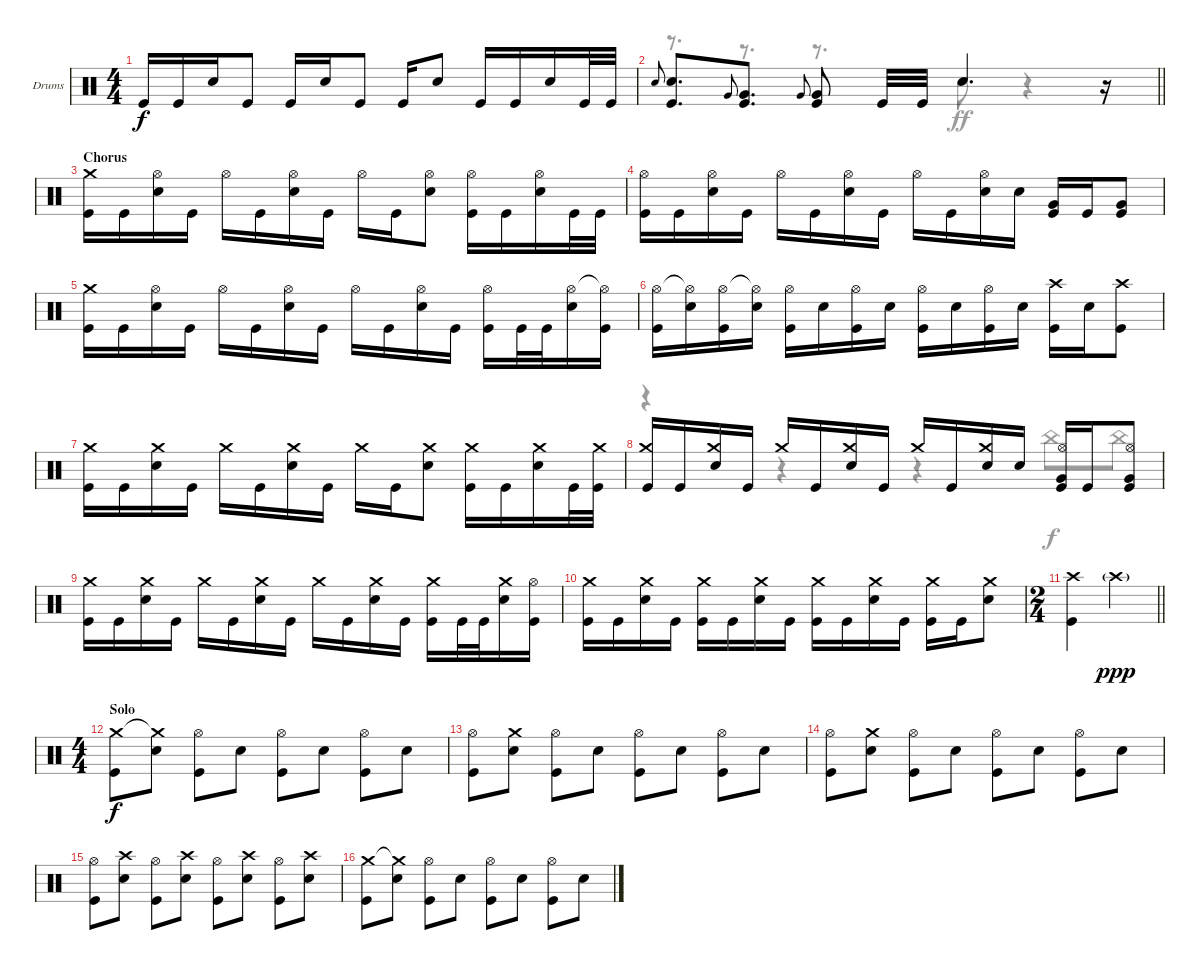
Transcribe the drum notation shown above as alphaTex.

\bracketExtendMode groupsimilarinstruments
\firstSystemTrackNameOrientation horizontal
\otherSystemsTrackNameOrientation horizontal
\track ("Drumkit" "Drums") {instrument percussion}
\staff {score}
\articulation defaults
\voice
\ts (4 4)
\tempo (94 hide)
\clef neutral
\ks c "Kick (hit)".16{dy f} "Kick (hit)".16 "Snare (hit) 2".16 "Kick (hit)".8 "Kick (hit)".16 "Snare (hit) 2".16 "Kick (hit)".8 "Kick (hit)".16 "Snare (hit) 2".8 "Kick (hit)".16 "Kick (hit)".16 "Snare (hit) 2".16 "Kick (hit)".32 "Kick (hit)".32
|
\barLineRight lightlight "Snare (hit) 2".8{gr onbeat}
("Snare (hit) 2" "Kick (hit)").8{d} "Very Low Tom (hit)".8{gr onbeat} ("Very Low Tom (hit)" "Kick (hit)").8{d} "Very Low Tom (hit)".8{gr onbeat} ("Very Low Tom (hit)" "Kick (hit)").8 "Kick (hit)".32 "Kick (hit)".32 "Snare (hit) 2".4{d} r.16 |
\section ("" "Chorus")
("Crash medium (hit)" "Kick (hit)").16 "Kick (hit)".16 ("Hi-Hat (open)" "Snare (hit) 2").16 "Kick (hit)".16 "Hi-Hat (open)".16 "Kick (hit)".16 ("Hi-Hat (open)" "Snare (hit) 2").16 "Kick (hit)".16 "Hi-Hat (open)".16 "Kick (hit)".16 ("Hi-Hat (open)" "Snare (hit) 2").8 ("Hi-Hat (open)" "Kick (hit)").16 "Kick (hit)".16 ("Hi-Hat (open)" "Snare (hit) 2").16 "Kick (hit)".32 "Kick (hit)".32 |
("Hi-Hat (open)" "Kick (hit)").16 "Kick (hit)".16 ("Hi-Hat (open)" "Snare (hit) 2").16 "Kick (hit)".16 "Hi-Hat (open)".16 "Kick (hit)".16 ("Hi-Hat (open)" "Snare (hit) 2").16 "Kick (hit)".16 "Hi-Hat (open)".16 "Kick (hit)".16 ("Hi-Hat (open)" "Snare (hit) 2").16 "Snare (hit) 2".16 ("Very Low Tom (hit)" "Kick (hit)").16 "Kick (hit)".16 ("Very Low Tom (hit)" "Kick (hit)").8 |
("Crash medium (hit)" "Kick (hit)").16 "Kick (hit)".16 ("Hi-Hat (open)" "Snare (hit) 2").16 "Kick (hit)".16 "Hi-Hat (open)".16 "Kick (hit)".16 ("Hi-Hat (open)" "Snare (hit) 2").16 "Kick (hit)".16 "Hi-Hat (open)".16 "Kick (hit)".16 ("Hi-Hat (open)" "Snare (hit) 2").16 "Kick (hit)".16 ("Hi-Hat (open)" "Kick (hit)").16 "Kick (hit)".32 "Kick (hit)".32 ("Hi-Hat (open)" "Snare (hit) 2").16 ("Hi-Hat (open)"{t} "Kick (hit)").16 |
("Hi-Hat (open)" "Kick (hit)").16 ("Hi-Hat (open)"{t} "Snare (hit) 2").16 ("Hi-Hat (open)" "Kick (hit)").16 ("Hi-Hat (open)"{t} "Snare (hit) 2").16 ("Hi-Hat (open)" "Kick (hit)").16 "Snare (hit) 2".16 ("Hi-Hat (open)" "Kick (hit)").16 "Snare (hit) 2".16 ("Hi-Hat (open)" "Kick (hit)").16 "Snare (hit) 2".16 ("Hi-Hat (open)" "Kick (hit)").16 "Snare (hit) 2".16 ("Crash high (hit)" "Kick (hit)").16 "Snare (hit) 2".16 ("Crash high (hit)" "Kick (hit)").8 |
("Crash medium (hit)" "Kick (hit)").16 "Kick (hit)".16 ("Crash medium (hit)" "Snare (hit) 2").16 "Kick (hit)".16 "Crash medium (hit)".16 "Kick (hit)".16 ("Crash medium (hit)" "Snare (hit) 2").16 "Kick (hit)".16 "Crash medium (hit)".16 "Kick (hit)".16 ("Crash medium (hit)" "Snare (hit) 2").8 ("Crash medium (hit)" "Kick (hit)").16 "Kick (hit)".16 ("Crash medium (hit)" "Snare (hit) 2").16 "Kick (hit)".32 ("Crash medium (hit)" "Kick (hit)").32 |
("Crash medium (hit)" "Kick (hit)").16 "Kick (hit)".16 ("Crash medium (hit)" "Snare (hit) 2").16 "Kick (hit)".16 "Crash medium (hit)".16 "Kick (hit)".16 ("Crash medium (hit)" "Snare (hit) 2").16 "Kick (hit)".16 "Crash medium (hit)".16 "Kick (hit)".16 ("Crash medium (hit)" "Snare (hit) 2").16 "Snare (hit) 2".16 ("Hi-Hat (open)" "Very Low Tom (hit)" "Kick (hit)").16 "Kick (hit)".16 ("Hi-Hat (open)" "Very Low Tom (hit)" "Kick (hit)").8 |
("Crash medium (hit)" "Kick (hit)").16 "Kick (hit)".16 ("Crash medium (hit)" "Snare (hit) 2").16 "Kick (hit)".16 "Crash medium (hit)".16 "Kick (hit)".16 ("Crash medium (hit)" "Snare (hit) 2").16 "Kick (hit)".16 "Crash medium (hit)".16 "Kick (hit)".16 ("Crash medium (hit)" "Snare (hit) 2").16 "Kick (hit)".16 ("Crash medium (hit)" "Kick (hit)").16 "Kick (hit)".32 "Kick (hit)".32 ("Crash medium (hit)" "Snare (hit) 2").16 ("Hi-Hat (open)" "Kick (hit)").16 |
("Crash medium (hit)" "Kick (hit)").16 "Kick (hit)".16 ("Crash medium (hit)" "Snare (hit) 2").16 "Kick (hit)".16 ("Crash medium (hit)" "Kick (hit)").16 "Kick (hit)".16 ("Crash medium (hit)" "Snare (hit) 2").16 "Kick (hit)".16 ("Crash medium (hit)" "Kick (hit)").16 "Kick (hit)".16 ("Crash medium (hit)" "Snare (hit) 2").16 "Kick (hit)".16 ("Crash medium (hit)" "Kick (hit)").16 "Kick (hit)".16 ("Crash medium (hit)" "Snare (hit) 2").8 |
\ts (2 4)
\beaming (8 2 2)
\tempo (193 1 hide)
\barLineRight lightlight
("Crash high (hit)" "Kick (hit)").4 "Crash high (hit)"{g}.4{dy ppp} |
\ts (4 4)
\beaming (8 2 2 2 2)
\section ("" "Solo")
\tempo (193 hide)
("Crash medium (hit)" "Kick (hit)").8{dy f} ("Crash medium (hit)"{t} "Snare (hit) 2").8 ("Hi-Hat (open)" "Kick (hit)").8 "Snare (hit) 2".8 ("Hi-Hat (open)" "Kick (hit)").8 "Snare (hit) 2".8 ("Hi-Hat (open)" "Kick (hit)").8 "Snare (hit) 2".8 |
("Hi-Hat (open)" "Kick (hit)").8 ("Crash medium (hit)" "Snare (hit) 2").8 ("Hi-Hat (open)" "Kick (hit)").8 "Snare (hit) 2".8 ("Hi-Hat (open)" "Kick (hit)").8 "Snare (hit) 2".8 ("Hi-Hat (open)" "Kick (hit)").8 "Snare (hit) 2".8 |
("Hi-Hat (open)" "Kick (hit)").8 ("Crash medium (hit)" "Snare (hit) 2").8 ("Hi-Hat (open)" "Kick (hit)").8 "Snare (hit) 2".8 ("Hi-Hat (open)" "Kick (hit)").8 "Snare (hit) 2".8 ("Hi-Hat (open)" "Kick (hit)").8 "Snare (hit) 2".8 |
\tempo (188 1 hide)
("Hi-Hat (open)" "Kick (hit)").8 ("Crash high (hit)" "Snare (hit) 2").8 ("Hi-Hat (open)" "Kick (hit)").8 ("Crash high (hit)" "Snare (hit) 2").8 ("Hi-Hat (open)" "Kick (hit)").8 ("Crash high (hit)" "Snare (hit) 2").8 ("Hi-Hat (open)" "Kick (hit)").8 ("Crash high (hit)" "Snare (hit) 2").8 |
\tempo (188 hide)
("Crash medium (hit)" "Kick (hit)").8 ("Crash medium (hit)"{t} "Snare (hit) 2").8 ("Hi-Hat (open)" "Kick (hit)").8 "Snare (hit) 2".8 ("Hi-Hat (open)" "Kick (hit)").8 "Snare (hit) 2".8 ("Hi-Hat (open)" "Kick (hit)").8 "Snare (hit) 2".8
\voice
\clef neutral
\ottava regular
\simile none
\ks c
|
\barLineRight lightlight
r.8{d} r.8{d} r.8{d} "Snare (hit) 2".8{dy ff} r.4 r.16 |
|
|
|
|
|
r.4 r.4 r.4 "China (hit)".8{dy f} "China (hit)".8 |
|
|
\barLineRight lightlight
|
|
|
|
|
